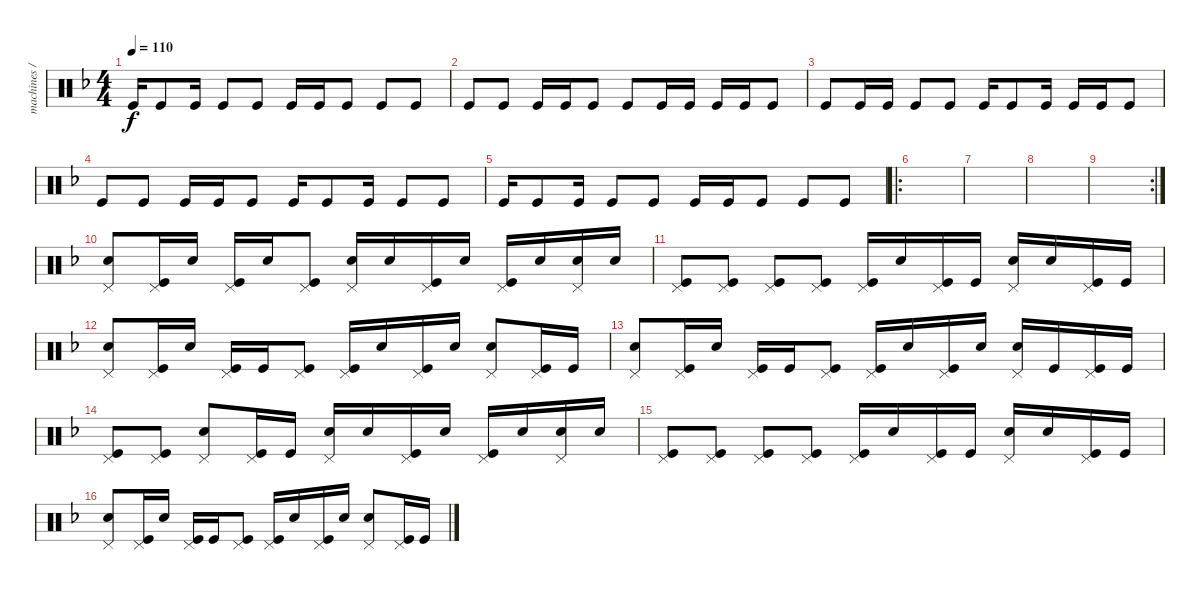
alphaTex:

\track ("machines / drum" "machines /") {instrument percussion}
\staff {score}
\articulation defaults
\ts (4 4)
\tempo 110
\clef neutral
\ks f "Kick (hit)".16{dy f} "Kick (hit)".8 "Kick (hit)".16 "Kick (hit)".8 "Kick (hit)".8 "Kick (hit)".16 "Kick (hit)".16 "Kick (hit)".8 "Kick (hit)".8 "Kick (hit)".8
|
"Kick (hit)".8 "Kick (hit)".8 "Kick (hit)".16 "Kick (hit)".16 "Kick (hit)".8 "Kick (hit)".8 "Kick (hit)".16 "Kick (hit)".16 "Kick (hit)".16 "Kick (hit)".16 "Kick (hit)".8 |
"Kick (hit)".8 "Kick (hit)".16 "Kick (hit)".16 "Kick (hit)".8 "Kick (hit)".8 "Kick (hit)".16 "Kick (hit)".8 "Kick (hit)".16 "Kick (hit)".16 "Kick (hit)".16 "Kick (hit)".8 |
"Kick (hit)".8 "Kick (hit)".8 "Kick (hit)".16 "Kick (hit)".16 "Kick (hit)".8 "Kick (hit)".16 "Kick (hit)".8 "Kick (hit)".16 "Kick (hit)".8 "Kick (hit)".8 |
"Kick (hit)".16 "Kick (hit)".8 "Kick (hit)".16 "Kick (hit)".8 "Kick (hit)".8 "Kick (hit)".16 "Kick (hit)".16 "Kick (hit)".8 "Kick (hit)".8 "Kick (hit)".8 |
\ro
|
|
|
\rc 2
|
("Pedal Hi-Hat (hit)" "Electric Snare (hit)").8 ("Pedal Hi-Hat (hit)" "Kick (hit)").16 "Electric Snare (hit)".16 ("Pedal Hi-Hat (hit)" "Kick (hit)").16 "Electric Snare (hit)".16 ("Pedal Hi-Hat (hit)" "Kick (hit)").8 ("Pedal Hi-Hat (hit)" "Electric Snare (hit)").16 "Electric Snare (hit)".16 ("Pedal Hi-Hat (hit)" "Kick (hit)").16 "Electric Snare (hit)".16 ("Pedal Hi-Hat (hit)" "Kick (hit)").16 "Electric Snare (hit)".16 ("Pedal Hi-Hat (hit)" "Electric Snare (hit)").16 "Electric Snare (hit)".16 |
("Pedal Hi-Hat (hit)" "Kick (hit)").8 ("Pedal Hi-Hat (hit)" "Kick (hit)").8 ("Pedal Hi-Hat (hit)" "Kick (hit)").8 ("Pedal Hi-Hat (hit)" "Kick (hit)").8 ("Pedal Hi-Hat (hit)" "Kick (hit)").16 "Electric Snare (hit)".16 ("Pedal Hi-Hat (hit)" "Kick (hit)").16 "Kick (hit)".16 ("Pedal Hi-Hat (hit)" "Electric Snare (hit)").16 "Electric Snare (hit)".16 ("Pedal Hi-Hat (hit)" "Kick (hit)").16 "Kick (hit)".16 |
("Pedal Hi-Hat (hit)" "Electric Snare (hit)").8 ("Pedal Hi-Hat (hit)" "Kick (hit)").16 "Electric Snare (hit)".16 ("Pedal Hi-Hat (hit)" "Kick (hit)").16 "Kick (hit)".16 ("Pedal Hi-Hat (hit)" "Kick (hit)").8 ("Pedal Hi-Hat (hit)" "Kick (hit)").16 "Electric Snare (hit)".16 ("Pedal Hi-Hat (hit)" "Kick (hit)").16 "Electric Snare (hit)".16 ("Pedal Hi-Hat (hit)" "Electric Snare (hit)").8 ("Pedal Hi-Hat (hit)" "Kick (hit)").16 "Kick (hit)".16 |
("Pedal Hi-Hat (hit)" "Electric Snare (hit)").8 ("Pedal Hi-Hat (hit)" "Kick (hit)").16 "Electric Snare (hit)".16 ("Pedal Hi-Hat (hit)" "Kick (hit)").16 "Kick (hit)".16 ("Pedal Hi-Hat (hit)" "Kick (hit)").8 ("Pedal Hi-Hat (hit)" "Kick (hit)").16 "Electric Snare (hit)".16 ("Pedal Hi-Hat (hit)" "Kick (hit)").16 "Electric Snare (hit)".16 ("Pedal Hi-Hat (hit)" "Electric Snare (hit)").16 "Kick (hit)".16 ("Pedal Hi-Hat (hit)" "Kick (hit)").16 "Kick (hit)".16 |
("Pedal Hi-Hat (hit)" "Kick (hit)").8 ("Pedal Hi-Hat (hit)" "Kick (hit)").8 ("Pedal Hi-Hat (hit)" "Electric Snare (hit)").8 ("Pedal Hi-Hat (hit)" "Kick (hit)").16 "Kick (hit)".16 ("Pedal Hi-Hat (hit)" "Electric Snare (hit)").16 "Electric Snare (hit)".16 ("Pedal Hi-Hat (hit)" "Kick (hit)").16 "Electric Snare (hit)".16 ("Pedal Hi-Hat (hit)" "Kick (hit)").16 "Electric Snare (hit)".16 ("Pedal Hi-Hat (hit)" "Electric Snare (hit)").16 "Electric Snare (hit)".16 |
("Pedal Hi-Hat (hit)" "Kick (hit)").8 ("Pedal Hi-Hat (hit)" "Kick (hit)").8 ("Pedal Hi-Hat (hit)" "Kick (hit)").8 ("Pedal Hi-Hat (hit)" "Kick (hit)").8 ("Pedal Hi-Hat (hit)" "Kick (hit)").16 "Electric Snare (hit)".16 ("Pedal Hi-Hat (hit)" "Kick (hit)").16 "Kick (hit)".16 ("Pedal Hi-Hat (hit)" "Electric Snare (hit)").16 "Electric Snare (hit)".16 ("Pedal Hi-Hat (hit)" "Kick (hit)").16 "Kick (hit)".16 |
("Pedal Hi-Hat (hit)" "Electric Snare (hit)").8 ("Pedal Hi-Hat (hit)" "Kick (hit)").16 "Electric Snare (hit)".16 ("Pedal Hi-Hat (hit)" "Kick (hit)").16 "Kick (hit)".16 ("Pedal Hi-Hat (hit)" "Kick (hit)").8 ("Pedal Hi-Hat (hit)" "Kick (hit)").16 "Electric Snare (hit)".16 ("Pedal Hi-Hat (hit)" "Kick (hit)").16 "Electric Snare (hit)".16 ("Pedal Hi-Hat (hit)" "Electric Snare (hit)").8 ("Pedal Hi-Hat (hit)" "Kick (hit)").16 "Kick (hit)".16
